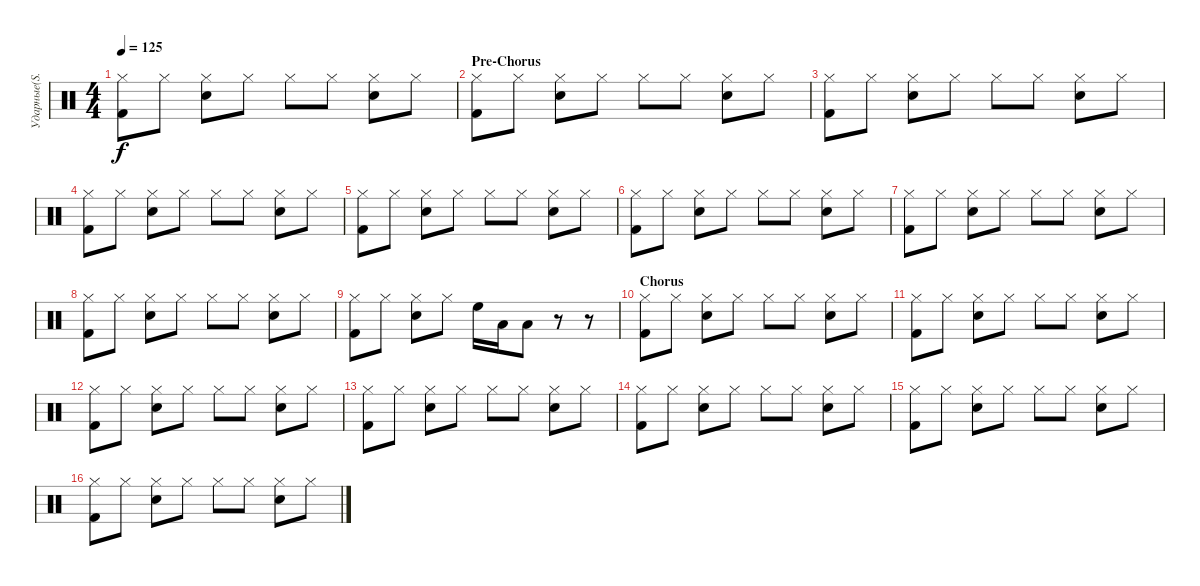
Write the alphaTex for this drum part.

\track ("Ударные(S. Travis)" "Ударные(S.") {instrument percussion}
\staff {score}
\articulation defaults
\ts (4 4)
\tempo 125
\clef neutral
\ks c
("Hi-Hat (closed)" "Kick (hit) 2").8{dy f} "Hi-Hat (closed)".8 ("Hi-Hat (closed)" "Snare (hit) 2").8 "Hi-Hat (closed)".8 "Hi-Hat (closed)".8 "Hi-Hat (closed)".8 ("Hi-Hat (closed)" "Snare (hit) 2").8 "Hi-Hat (closed)".8 |
\section ("" "Pre-Chorus")
("Hi-Hat (closed)" "Kick (hit) 2").8 "Hi-Hat (closed)".8 ("Hi-Hat (closed)" "Snare (hit) 2").8 "Hi-Hat (closed)".8 "Hi-Hat (closed)".8 "Hi-Hat (closed)".8 ("Hi-Hat (closed)" "Snare (hit) 2").8 "Hi-Hat (closed)".8 |
("Hi-Hat (closed)" "Kick (hit) 2").8 "Hi-Hat (closed)".8 ("Hi-Hat (closed)" "Snare (hit) 2").8 "Hi-Hat (closed)".8 "Hi-Hat (closed)".8 "Hi-Hat (closed)".8 ("Hi-Hat (closed)" "Snare (hit) 2").8 "Hi-Hat (closed)".8 |
("Hi-Hat (closed)" "Kick (hit) 2").8 "Hi-Hat (closed)".8 ("Hi-Hat (closed)" "Snare (hit) 2").8 "Hi-Hat (closed)".8 "Hi-Hat (closed)".8 "Hi-Hat (closed)".8 ("Hi-Hat (closed)" "Snare (hit) 2").8 "Hi-Hat (closed)".8 |
("Hi-Hat (closed)" "Kick (hit) 2").8 "Hi-Hat (closed)".8 ("Hi-Hat (closed)" "Snare (hit) 2").8 "Hi-Hat (closed)".8 "Hi-Hat (closed)".8 "Hi-Hat (closed)".8 ("Hi-Hat (closed)" "Snare (hit) 2").8 "Hi-Hat (closed)".8 |
("Hi-Hat (closed)" "Kick (hit) 2").8 "Hi-Hat (closed)".8 ("Hi-Hat (closed)" "Snare (hit) 2").8 "Hi-Hat (closed)".8 "Hi-Hat (closed)".8 "Hi-Hat (closed)".8 ("Hi-Hat (closed)" "Snare (hit) 2").8 "Hi-Hat (closed)".8 |
("Hi-Hat (closed)" "Kick (hit) 2").8 "Hi-Hat (closed)".8 ("Hi-Hat (closed)" "Snare (hit) 2").8 "Hi-Hat (closed)".8 "Hi-Hat (closed)".8 "Hi-Hat (closed)".8 ("Hi-Hat (closed)" "Snare (hit) 2").8 "Hi-Hat (closed)".8 |
("Hi-Hat (closed)" "Kick (hit) 2").8 "Hi-Hat (closed)".8 ("Hi-Hat (closed)" "Snare (hit) 2").8 "Hi-Hat (closed)".8 "Hi-Hat (closed)".8 "Hi-Hat (closed)".8 ("Hi-Hat (closed)" "Snare (hit) 2").8 "Hi-Hat (closed)".8 |
("Hi-Hat (closed)" "Kick (hit) 2").8 "Hi-Hat (closed)".8 ("Hi-Hat (closed)" "Snare (hit) 2").8 "Hi-Hat (closed)".8 "High Floor Tom (hit)".16 "Low Tom (hit)".16 "Low Tom (hit)".8 r.8 r.8 |
\section ("" "Chorus")
("Hi-Hat (closed)" "Kick (hit) 2").8 "Hi-Hat (closed)".8 ("Hi-Hat (closed)" "Snare (hit) 2").8 "Hi-Hat (closed)".8 "Hi-Hat (closed)".8 "Hi-Hat (closed)".8 ("Hi-Hat (closed)" "Snare (hit) 2").8 "Hi-Hat (closed)".8 |
("Hi-Hat (closed)" "Kick (hit) 2").8 "Hi-Hat (closed)".8 ("Hi-Hat (closed)" "Snare (hit) 2").8 "Hi-Hat (closed)".8 "Hi-Hat (closed)".8 "Hi-Hat (closed)".8 ("Hi-Hat (closed)" "Snare (hit) 2").8 "Hi-Hat (closed)".8 |
("Hi-Hat (closed)" "Kick (hit) 2").8 "Hi-Hat (closed)".8 ("Hi-Hat (closed)" "Snare (hit) 2").8 "Hi-Hat (closed)".8 "Hi-Hat (closed)".8 "Hi-Hat (closed)".8 ("Hi-Hat (closed)" "Snare (hit) 2").8 "Hi-Hat (closed)".8 |
("Hi-Hat (closed)" "Kick (hit) 2").8 "Hi-Hat (closed)".8 ("Hi-Hat (closed)" "Snare (hit) 2").8 "Hi-Hat (closed)".8 "Hi-Hat (closed)".8 "Hi-Hat (closed)".8 ("Hi-Hat (closed)" "Snare (hit) 2").8 "Hi-Hat (closed)".8 |
("Hi-Hat (closed)" "Kick (hit) 2").8 "Hi-Hat (closed)".8 ("Hi-Hat (closed)" "Snare (hit) 2").8 "Hi-Hat (closed)".8 "Hi-Hat (closed)".8 "Hi-Hat (closed)".8 ("Hi-Hat (closed)" "Snare (hit) 2").8 "Hi-Hat (closed)".8 |
("Hi-Hat (closed)" "Kick (hit) 2").8 "Hi-Hat (closed)".8 ("Hi-Hat (closed)" "Snare (hit) 2").8 "Hi-Hat (closed)".8 "Hi-Hat (closed)".8 "Hi-Hat (closed)".8 ("Hi-Hat (closed)" "Snare (hit) 2").8 "Hi-Hat (closed)".8 |
("Hi-Hat (closed)" "Kick (hit) 2").8 "Hi-Hat (closed)".8 ("Hi-Hat (closed)" "Snare (hit) 2").8 "Hi-Hat (closed)".8 "Hi-Hat (closed)".8 "Hi-Hat (closed)".8 ("Hi-Hat (closed)" "Snare (hit) 2").8 "Hi-Hat (closed)".8
